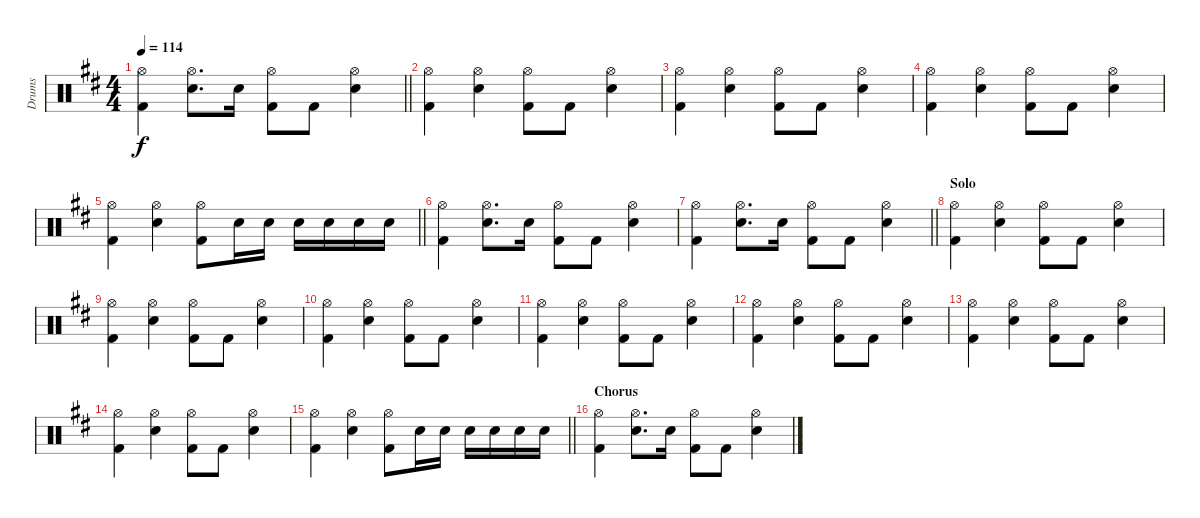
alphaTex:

\track ("Drums" "Drums") {instrument percussion}
\staff {score}
\articulation defaults
\ts (4 4)
\tempo 114
\clef neutral
\barLineRight lightlight
\ks bminor
("Hi-Hat (open)" "Kick (hit) 2").4{dy f} ("Hi-Hat (open)" "Snare (hit) 2").8{d} "Snare (hit) 2".16 ("Hi-Hat (open)" "Kick (hit) 2").8 "Kick (hit) 2".8 ("Hi-Hat (open)" "Snare (hit) 2").4 |
("Hi-Hat (open)" "Kick (hit) 2").4 ("Hi-Hat (open)" "Snare (hit) 2").4 ("Hi-Hat (open)" "Kick (hit) 2").8 "Kick (hit) 2".8 ("Hi-Hat (open)" "Snare (hit) 2").4 |
("Hi-Hat (open)" "Kick (hit) 2").4 ("Hi-Hat (open)" "Snare (hit) 2").4 ("Hi-Hat (open)" "Kick (hit) 2").8 "Kick (hit) 2".8 ("Hi-Hat (open)" "Snare (hit) 2").4 |
("Hi-Hat (open)" "Kick (hit) 2").4 ("Hi-Hat (open)" "Snare (hit) 2").4 ("Hi-Hat (open)" "Kick (hit) 2").8 "Kick (hit) 2".8 ("Hi-Hat (open)" "Snare (hit) 2").4 |
\barLineRight lightlight
("Hi-Hat (open)" "Kick (hit) 2").4 ("Hi-Hat (open)" "Snare (hit) 2").4 ("Hi-Hat (open)" "Kick (hit) 2").8 "Snare (hit) 2".16 "Snare (hit) 2".16 "Snare (hit) 2".16 "Snare (hit) 2".16 "Snare (hit) 2".16 "Snare (hit) 2".16 |
("Hi-Hat (open)" "Kick (hit) 2").4 ("Hi-Hat (open)" "Snare (hit) 2").8{d} "Snare (hit) 2".16 ("Hi-Hat (open)" "Kick (hit) 2").8 "Kick (hit) 2".8 ("Hi-Hat (open)" "Snare (hit) 2").4 |
\barLineRight lightlight
("Hi-Hat (open)" "Kick (hit) 2").4 ("Hi-Hat (open)" "Snare (hit) 2").8{d} "Snare (hit) 2".16 ("Hi-Hat (open)" "Kick (hit) 2").8 "Kick (hit) 2".8 ("Hi-Hat (open)" "Snare (hit) 2").4 |
\section ("" "Solo")
("Hi-Hat (open)" "Kick (hit) 2").4 ("Hi-Hat (open)" "Snare (hit) 2").4 ("Hi-Hat (open)" "Kick (hit) 2").8 "Kick (hit) 2".8 ("Hi-Hat (open)" "Snare (hit) 2").4 |
("Hi-Hat (open)" "Kick (hit) 2").4 ("Hi-Hat (open)" "Snare (hit) 2").4 ("Hi-Hat (open)" "Kick (hit) 2").8 "Kick (hit) 2".8 ("Hi-Hat (open)" "Snare (hit) 2").4 |
("Hi-Hat (open)" "Kick (hit) 2").4 ("Hi-Hat (open)" "Snare (hit) 2").4 ("Hi-Hat (open)" "Kick (hit) 2").8 "Kick (hit) 2".8 ("Hi-Hat (open)" "Snare (hit) 2").4 |
("Hi-Hat (open)" "Kick (hit) 2").4 ("Hi-Hat (open)" "Snare (hit) 2").4 ("Hi-Hat (open)" "Kick (hit) 2").8 "Kick (hit) 2".8 ("Hi-Hat (open)" "Snare (hit) 2").4 |
("Hi-Hat (open)" "Kick (hit) 2").4 ("Hi-Hat (open)" "Snare (hit) 2").4 ("Hi-Hat (open)" "Kick (hit) 2").8 "Kick (hit) 2".8 ("Hi-Hat (open)" "Snare (hit) 2").4 |
("Hi-Hat (open)" "Kick (hit) 2").4 ("Hi-Hat (open)" "Snare (hit) 2").4 ("Hi-Hat (open)" "Kick (hit) 2").8 "Kick (hit) 2".8 ("Hi-Hat (open)" "Snare (hit) 2").4 |
("Hi-Hat (open)" "Kick (hit) 2").4 ("Hi-Hat (open)" "Snare (hit) 2").4 ("Hi-Hat (open)" "Kick (hit) 2").8 "Kick (hit) 2".8 ("Hi-Hat (open)" "Snare (hit) 2").4 |
\barLineRight lightlight
("Hi-Hat (open)" "Kick (hit) 2").4 ("Hi-Hat (open)" "Snare (hit) 2").4 ("Hi-Hat (open)" "Kick (hit) 2").8 "Snare (hit) 2".16 "Snare (hit) 2".16 "Snare (hit) 2".16 "Snare (hit) 2".16 "Snare (hit) 2".16 "Snare (hit) 2".16 |
\section ("" "Chorus")
("Hi-Hat (open)" "Kick (hit) 2").4 ("Hi-Hat (open)" "Snare (hit) 2").8{d} "Snare (hit) 2".16 ("Hi-Hat (open)" "Kick (hit) 2").8 "Kick (hit) 2".8 ("Hi-Hat (open)" "Snare (hit) 2").4
